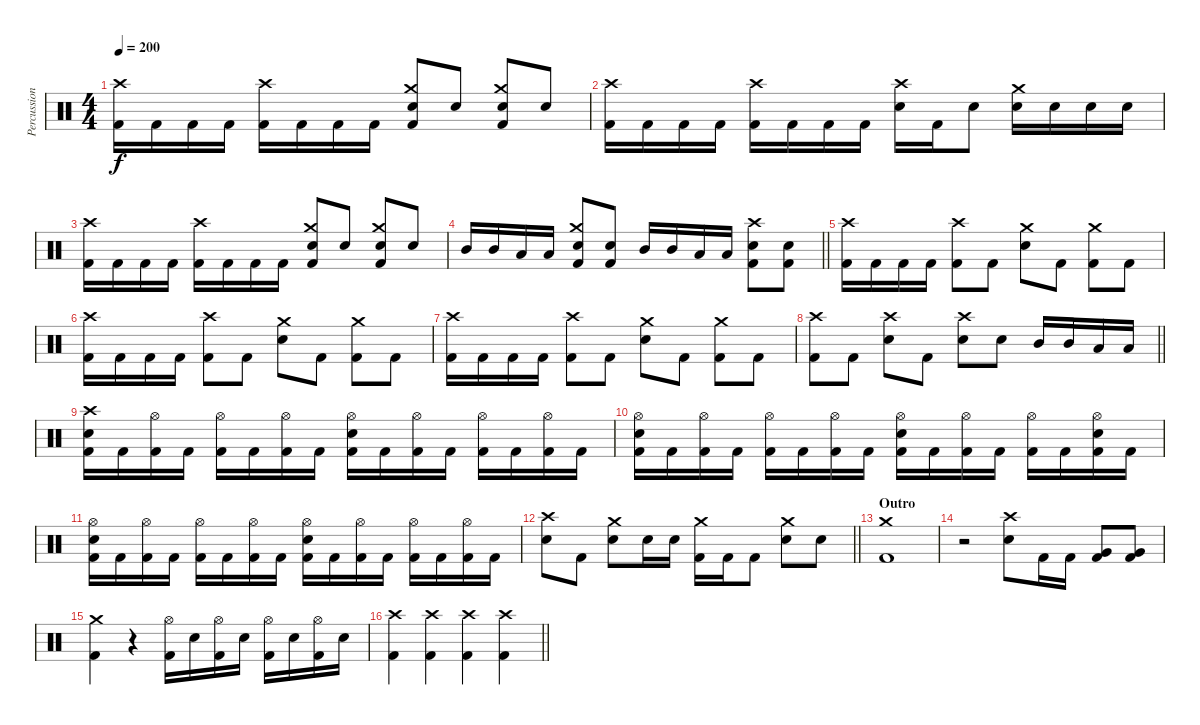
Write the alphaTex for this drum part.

\track ("Percussion" "Percussion") {instrument percussion}
\staff {score}
\articulation defaults
\ts (4 4)
\tempo 200
\clef neutral
\ks c
("Crash high (hit)" "Kick (hit) 2").16{dy f} "Kick (hit) 2".16 "Kick (hit) 2".16 "Kick (hit) 2".16 ("Crash high (hit)" "Kick (hit) 2").16 "Kick (hit) 2".16 "Kick (hit) 2".16 "Kick (hit) 2".16 ("Crash medium (hit)" "Electric Snare (hit)" "Kick (hit) 2").8 "Electric Snare (hit)".8 ("Crash medium (hit)" "Electric Snare (hit)" "Kick (hit) 2").8 "Electric Snare (hit)".8 |
("Crash high (hit)" "Kick (hit) 2").16 "Kick (hit) 2".16 "Kick (hit) 2".16 "Kick (hit) 2".16 ("Crash high (hit)" "Kick (hit) 2").16 "Kick (hit) 2".16 "Kick (hit) 2".16 "Kick (hit) 2".16 ("Crash high (hit)" "Electric Snare (hit)").16 "Kick (hit) 2".16 "Electric Snare (hit)".8 ("Crash medium (hit)" "Electric Snare (hit)").16 "Electric Snare (hit)".16 "Electric Snare (hit)".16 "Electric Snare (hit)".16 |
("Crash high (hit)" "Kick (hit) 2").16 "Kick (hit) 2".16 "Kick (hit) 2".16 "Kick (hit) 2".16 ("Crash high (hit)" "Kick (hit) 2").16 "Kick (hit) 2".16 "Kick (hit) 2".16 "Kick (hit) 2".16 ("Crash medium (hit)" "Electric Snare (hit)" "Kick (hit) 2").8 "Electric Snare (hit)".8 ("Crash medium (hit)" "Electric Snare (hit)" "Kick (hit) 2").8 "Electric Snare (hit)".8 |
\barLineRight lightlight "Mid Tom (hit)".16 "Mid Tom (hit)".16 "Low Tom (hit)".16 "Low Tom (hit)".16
("Crash medium (hit)" "Electric Snare (hit)" "Kick (hit) 2").8 ("Electric Snare (hit)" "Kick (hit) 2").8 "Mid Tom (hit)".16 "Mid Tom (hit)".16 "Low Tom (hit)".16 "Low Tom (hit)".16 ("Crash high (hit)" "Electric Snare (hit)" "Kick (hit) 2").8 ("Electric Snare (hit)" "Kick (hit) 2").8 |
("Crash high (hit)" "Kick (hit) 2").16 "Kick (hit) 2".16 "Kick (hit) 2".16 "Kick (hit) 2".16 ("Crash high (hit)" "Kick (hit) 2").8 "Kick (hit) 2".8 ("Crash medium (hit)" "Electric Snare (hit)").8 "Kick (hit) 2".8 ("Crash medium (hit)" "Kick (hit) 2").8 "Kick (hit) 2".8 |
("Crash high (hit)" "Kick (hit) 2").16 "Kick (hit) 2".16 "Kick (hit) 2".16 "Kick (hit) 2".16 ("Crash high (hit)" "Kick (hit) 2").8 "Kick (hit) 2".8 ("Crash medium (hit)" "Electric Snare (hit)").8 "Kick (hit) 2".8 ("Crash medium (hit)" "Kick (hit) 2").8 "Kick (hit) 2".8 |
("Crash high (hit)" "Kick (hit) 2").16 "Kick (hit) 2".16 "Kick (hit) 2".16 "Kick (hit) 2".16 ("Crash high (hit)" "Kick (hit) 2").8 "Kick (hit) 2".8 ("Crash medium (hit)" "Electric Snare (hit)").8 "Kick (hit) 2".8 ("Crash medium (hit)" "Kick (hit) 2").8 "Kick (hit) 2".8 |
\barLineRight lightlight
("Crash high (hit)" "Kick (hit) 2").8 "Kick (hit) 2".8 ("Crash high (hit)" "Electric Snare (hit)").8 "Kick (hit) 2".8 ("Crash high (hit)" "Electric Snare (hit)").8 "Electric Snare (hit)".8 "Mid Tom (hit)".16 "Mid Tom (hit)".16 "Low Tom (hit)".16 "Low Tom (hit)".16 |
("Crash high (hit)" "Electric Snare (hit)" "Kick (hit) 2").16 "Kick (hit) 2".16 ("Hi-Hat (open)" "Kick (hit) 2").16 "Kick (hit) 2".16 ("Hi-Hat (open)" "Kick (hit) 2").16 "Kick (hit) 2".16 ("Hi-Hat (open)" "Kick (hit) 2").16 "Kick (hit) 2".16 ("Hi-Hat (open)" "Electric Snare (hit)" "Kick (hit) 2").16 "Kick (hit) 2".16 ("Hi-Hat (open)" "Kick (hit) 2").16 "Kick (hit) 2".16 ("Hi-Hat (open)" "Kick (hit) 2").16 "Kick (hit) 2".16 ("Hi-Hat (open)" "Kick (hit) 2").16 "Kick (hit) 2".16 |
("Hi-Hat (open)" "Electric Snare (hit)" "Kick (hit) 2").16 "Kick (hit) 2".16 ("Hi-Hat (open)" "Kick (hit) 2").16 "Kick (hit) 2".16 ("Hi-Hat (open)" "Kick (hit) 2").16 "Kick (hit) 2".16 ("Hi-Hat (open)" "Kick (hit) 2").16 "Kick (hit) 2".16 ("Hi-Hat (open)" "Electric Snare (hit)" "Kick (hit) 2").16 "Kick (hit) 2".16 ("Hi-Hat (open)" "Kick (hit) 2").16 "Kick (hit) 2".16 ("Hi-Hat (open)" "Kick (hit) 2").16 "Kick (hit) 2".16 ("Hi-Hat (open)" "Electric Snare (hit)" "Kick (hit) 2").16 "Kick (hit) 2".16 |
("Hi-Hat (open)" "Electric Snare (hit)" "Kick (hit) 2").16 "Kick (hit) 2".16 ("Hi-Hat (open)" "Kick (hit) 2").16 "Kick (hit) 2".16 ("Hi-Hat (open)" "Kick (hit) 2").16 "Kick (hit) 2".16 ("Hi-Hat (open)" "Kick (hit) 2").16 "Kick (hit) 2".16 ("Hi-Hat (open)" "Electric Snare (hit)" "Kick (hit) 2").16 "Kick (hit) 2".16 ("Hi-Hat (open)" "Kick (hit) 2").16 "Kick (hit) 2".16 ("Hi-Hat (open)" "Kick (hit) 2").16 "Kick (hit) 2".16 ("Hi-Hat (open)" "Kick (hit) 2").16 "Kick (hit) 2".16 |
\barLineRight lightlight
("Crash high (hit)" "Electric Snare (hit)").8 "Kick (hit) 2".8 ("Crash medium (hit)" "Electric Snare (hit)").8 "Electric Snare (hit)".16 "Electric Snare (hit)".16 ("Crash medium (hit)" "Kick (hit) 2").16 "Kick (hit) 2".16 "Kick (hit) 2".8 ("Crash medium (hit)" "Electric Snare (hit)").8 "Electric Snare (hit)".8 |
\section ("" "Outro")
("Crash medium (hit)" "Kick (hit) 2").1 |
r.2 ("Crash high (hit)" "Electric Snare (hit)").8 "Kick (hit) 2".16 "Kick (hit) 2".16 ("Very Low Tom (hit)" "Kick (hit) 2").8 ("Very Low Tom (hit)" "Kick (hit) 2").8 |
("Crash medium (hit)" "Kick (hit) 2").4 r.4 ("Hi-Hat (open)" "Kick (hit) 2").16 "Electric Snare (hit)".16 ("Hi-Hat (open)" "Kick (hit) 2").16 "Electric Snare (hit)".16 ("Hi-Hat (open)" "Kick (hit) 2").16 "Electric Snare (hit)".16 ("Hi-Hat (open)" "Kick (hit) 2").16 "Electric Snare (hit)".16 |
\barLineRight lightlight
("Crash high (hit)" "Kick (hit) 2").4 ("Crash high (hit)" "Kick (hit) 2").4 ("Crash high (hit)" "Kick (hit) 2").4 ("Crash high (hit)" "Kick (hit) 2").4
